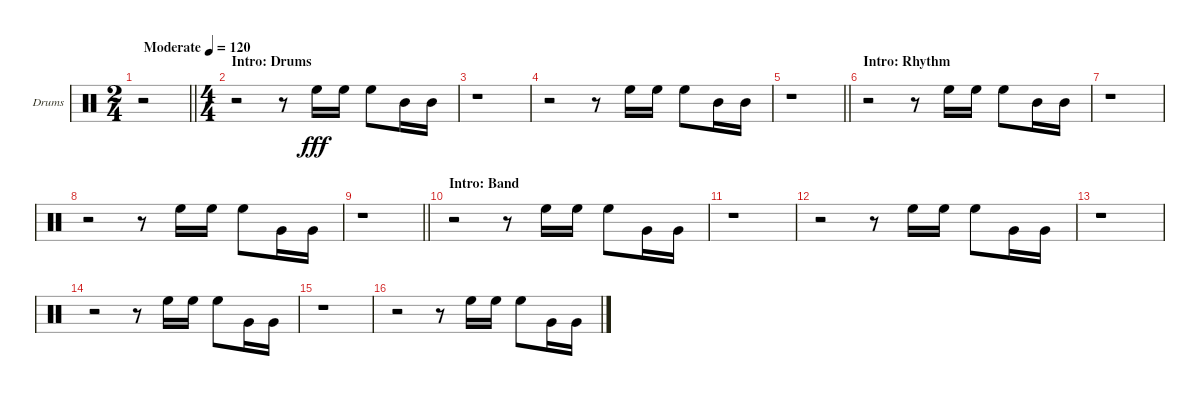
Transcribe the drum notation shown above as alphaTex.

\bracketExtendMode groupsimilarinstruments
\firstSystemTrackNameOrientation horizontal
\otherSystemsTrackNameOrientation horizontal
\track ("Drumkit" "Drums") {instrument percussion}
\staff {score}
\articulation defaults
\voice
\ts (2 4)
\beaming (8 2 2)
\tempo (120 "Moderate")
\clef neutral
\barLineRight lightlight
\ks c
r.2{dy fff} |
\ts (4 4)
\beaming (8 2 2 2 2)
\section ("" "Intro: Drums")
r.2 r.8 "High Floor Tom (hit)".16 "High Floor Tom (hit)".16 "High Floor Tom (hit)".8 "Mid Tom (hit)".16 "Mid Tom (hit)".16 |
r.1 |
r.2 r.8 "High Floor Tom (hit)".16 "High Floor Tom (hit)".16 "High Floor Tom (hit)".8 "Mid Tom (hit)".16 "Mid Tom (hit)".16 |
\barLineRight lightlight
r.1 |
\section ("" "Intro: Rhythm")
r.2 r.8 "High Floor Tom (hit)".16 "High Floor Tom (hit)".16 "High Floor Tom (hit)".8 "Mid Tom (hit)".16 "Mid Tom (hit)".16 |
r.1 |
r.2 r.8 "High Floor Tom (hit)".16 "High Floor Tom (hit)".16 "High Floor Tom (hit)".8 "Very Low Tom (hit)".16 "Very Low Tom (hit)".16 |
\barLineRight lightlight
r.1 |
\section ("" "Intro: Band")
r.2 r.8 "High Floor Tom (hit)".16 "High Floor Tom (hit)".16 "High Floor Tom (hit)".8 "Very Low Tom (hit)".16 "Very Low Tom (hit)".16 |
r.1 |
r.2 r.8 "High Floor Tom (hit)".16 "High Floor Tom (hit)".16 "High Floor Tom (hit)".8 "Very Low Tom (hit)".16 "Very Low Tom (hit)".16 |
r.1 |
r.2 r.8 "High Floor Tom (hit)".16 "High Floor Tom (hit)".16 "High Floor Tom (hit)".8 "Very Low Tom (hit)".16 "Very Low Tom (hit)".16 |
r.1 |
r.2 r.8 "High Floor Tom (hit)".16 "High Floor Tom (hit)".16 "High Floor Tom (hit)".8 "Very Low Tom (hit)".16 "Very Low Tom (hit)".16
\voice
\clef neutral
\ottava regular
\simile none
\barLineRight lightlight
\ks c
r.2{dy mf} |
|
|
|
\barLineRight lightlight
|
|
|
|
\barLineRight lightlight
|
|
|
|
|
|
|
